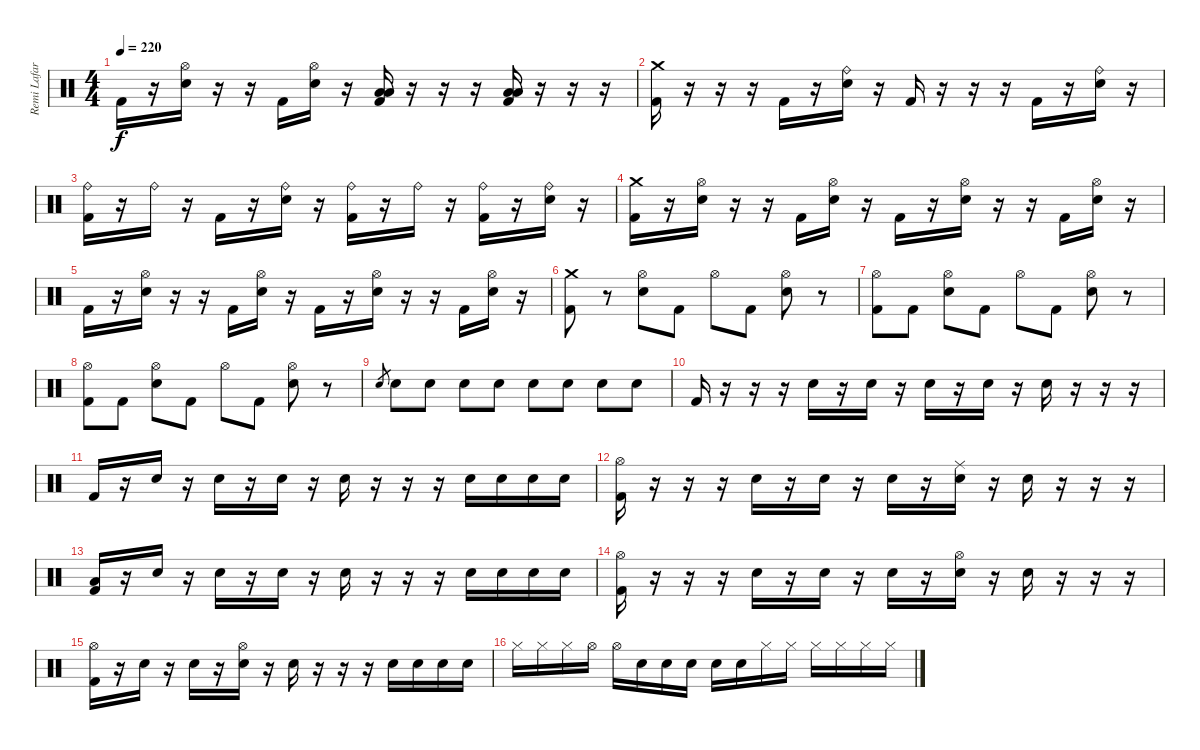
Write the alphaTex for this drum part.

\track ("Remi Lafargue " "Remi Lafar") {instrument percussion}
\staff {score}
\articulation defaults
\ts (4 4)
\tempo 220
\clef neutral
\ks c "Kick (hit) 2".16{dy f}
r.16 ("Hi-Hat (open)" "Snare (hit) 2").16 r.16 r.16 "Kick (hit) 2".16 ("Hi-Hat (open)" "Snare (hit) 2").16 r.16 ("Low Tom (hit)" "Low Floor Tom (hit)" "Kick (hit) 2").16 r.16 r.16 r.16 ("Low Tom (hit)" "Low Floor Tom (hit)" "Kick (hit) 2").16 r.16 r.16 r.16 |
("Crash medium (hit)" "Kick (hit) 2").16 r.16 r.16 r.16 "Kick (hit) 2".16 r.16 ("Ride (bell)" "Snare (hit) 2").16 r.16 "Kick (hit) 2".16 r.16 r.16 r.16 "Kick (hit) 2".16 r.16 ("Ride (bell)" "Snare (hit) 2").16 r.16 |
("Ride (bell)" "Kick (hit) 2").16 r.16 "Ride (bell)".16 r.16 "Kick (hit) 2".16 r.16 ("Ride (bell)" "Snare (hit) 2").16 r.16 ("Ride (bell)" "Kick (hit) 2").16 r.16 "Ride (bell)".16 r.16 ("Ride (bell)" "Kick (hit) 2").16 r.16 ("Ride (bell)" "Snare (hit) 2").16 r.16 |
("Crash medium (hit)" "Kick (hit) 2").16 r.16 ("Hi-Hat (open)" "Snare (hit) 2").16 r.16 r.16 "Kick (hit) 2".16 ("Hi-Hat (open)" "Snare (hit) 2").16 r.16 "Kick (hit) 2".16 r.16 ("Hi-Hat (open)" "Snare (hit) 2").16 r.16 r.16 "Kick (hit) 2".16 ("Hi-Hat (open)" "Snare (hit) 2").16 r.16 |
"Kick (hit) 2".16 r.16 ("Hi-Hat (open)" "Snare (hit) 2").16 r.16 r.16 "Kick (hit) 2".16 ("Hi-Hat (open)" "Snare (hit) 2").16 r.16 "Kick (hit) 2".16 r.16 ("Hi-Hat (open)" "Snare (hit) 2").16 r.16 r.16 "Kick (hit) 2".16 ("Hi-Hat (open)" "Snare (hit) 2").16 r.16 |
("Crash medium (hit)" "Kick (hit) 2").8 r.8 ("Hi-Hat (open)" "Snare (hit) 2").8 "Kick (hit) 2".8 "Hi-Hat (open)".8 "Kick (hit) 2".8 ("Hi-Hat (open)" "Snare (hit) 2").8 r.8 |
("Hi-Hat (open)" "Kick (hit) 2").8 "Kick (hit) 2".8 ("Hi-Hat (open)" "Snare (hit) 2").8 "Kick (hit) 2".8 "Hi-Hat (open)".8 "Kick (hit) 2".8 ("Hi-Hat (open)" "Snare (hit) 2").8 r.8 |
("Hi-Hat (open)" "Kick (hit) 2").8 "Kick (hit) 2".8 ("Hi-Hat (open)" "Snare (hit) 2").8 "Kick (hit) 2".8 "Hi-Hat (open)".8 "Kick (hit) 2".8 ("Hi-Hat (open)" "Snare (hit) 2").8 r.8 |
"Snare (hit) 2".8{gr} "Snare (hit) 2".8 "Snare (hit) 2".8 "Snare (hit) 2".8 "Snare (hit) 2".8 "Snare (hit) 2".8 "Snare (hit) 2".8 "Snare (hit) 2".8 "Snare (hit) 2".8 |
"Kick (hit) 2".16 r.16 r.16 r.16 "Snare (hit) 2".16 r.16 "Snare (hit) 2".16 r.16 "Snare (hit) 2".16 r.16 "Snare (hit) 2".16 r.16 "Snare (hit) 2".16 r.16 r.16 r.16 |
"Kick (hit) 2".16 r.16 "Snare (hit) 2".16 r.16 "Snare (hit) 2".16 r.16 "Snare (hit) 2".16 r.16 "Snare (hit) 2".16 r.16 r.16 r.16 "Snare (hit) 2".16 "Snare (hit) 2".16 "Snare (hit) 2".16 "Snare (hit) 2".16 |
("Hi-Hat (open)" "Kick (hit) 2").16 r.16 r.16 r.16 "Snare (hit) 2".16 r.16 "Snare (hit) 2".16 r.16 "Snare (hit) 2".16 r.16 ("Ride (middle)" "Snare (hit) 2").16 r.16 "Snare (hit) 2".16 r.16 r.16 r.16 |
("Low Floor Tom (hit)" "Kick (hit) 2").16 r.16 "Snare (hit) 2".16 r.16 "Snare (hit) 2".16 r.16 "Snare (hit) 2".16 r.16 "Snare (hit) 2".16 r.16 r.16 r.16 "Snare (hit) 2".16 "Snare (hit) 2".16 "Snare (hit) 2".16 "Snare (hit) 2".16 |
("Hi-Hat (open)" "Kick (hit) 2").16 r.16 r.16 r.16 "Snare (hit) 2".16 r.16 "Snare (hit) 2".16 r.16 "Snare (hit) 2".16 r.16 ("Hi-Hat (open)" "Snare (hit) 2").16 r.16 "Snare (hit) 2".16 r.16 r.16 r.16 |
("Hi-Hat (open)" "Kick (hit) 2").16 r.16 "Snare (hit) 2".16 r.16 "Snare (hit) 2".16 r.16 ("Hi-Hat (open)" "Snare (hit) 2").16 r.16 "Snare (hit) 2".16 r.16 r.16 r.16 "Snare (hit) 2".16 "Snare (hit) 2".16 "Snare (hit) 2".16 "Snare (hit) 2".16 |
"Hi-Hat (closed)".16 "Hi-Hat (closed)".16 "Hi-Hat (closed)".16 "Hi-Hat (open)".16 "Hi-Hat (open)".16 "Snare (hit) 2".16 "Snare (hit) 2".16 "Snare (hit) 2".16 "Snare (hit) 2".16 "Snare (hit) 2".16 "Hi-Hat (closed)".16 "Hi-Hat (closed)".16 "Hi-Hat (closed)".16 "Hi-Hat (closed)".16 "Hi-Hat (closed)".16 "Hi-Hat (closed)".16
